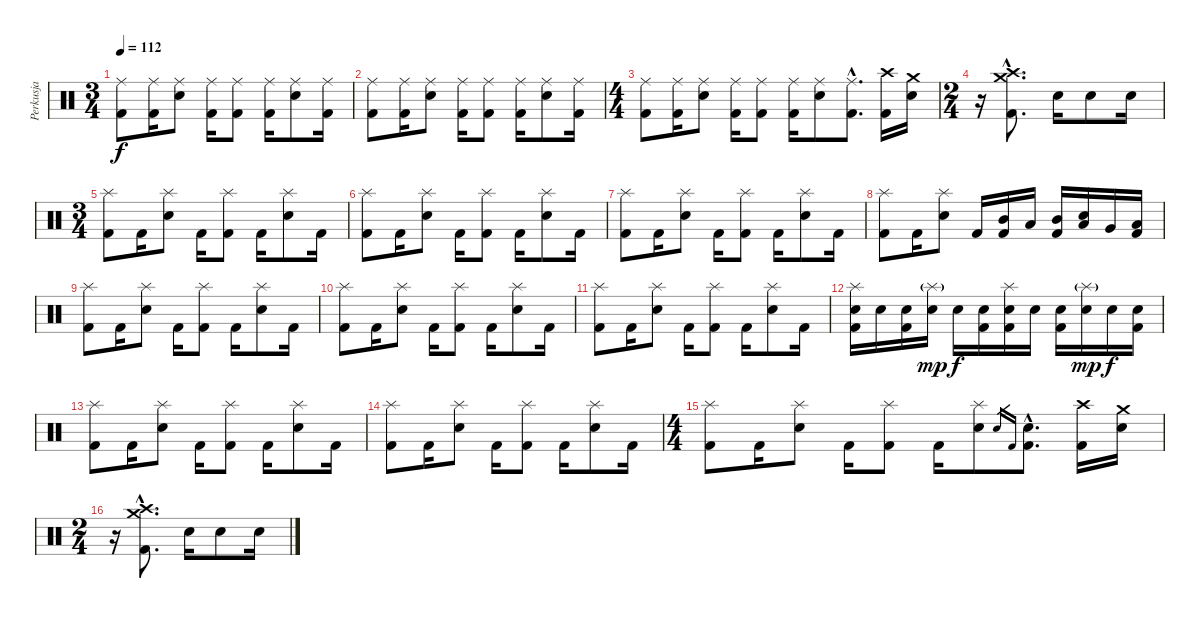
\track ("Perkusja" "Perkusja") {instrument percussion}
\staff {score}
\articulation defaults
\ts (3 4)
\tempo 112
\clef neutral
\ks c
("Ride (middle)" "Kick (hit) 2").8{dy f} ("Ride (middle)" "Kick (hit) 2").16 ("Ride (middle)" "Electric Snare (hit)").8 ("Ride (middle)" "Kick (hit) 2").16 ("Ride (middle)" "Kick (hit) 2").8 ("Ride (middle)" "Kick (hit) 2").16 ("Ride (middle)" "Electric Snare (hit)").8 ("Ride (middle)" "Kick (hit) 2").16 |
("Ride (middle)" "Kick (hit) 2").8 ("Ride (middle)" "Kick (hit) 2").16 ("Ride (middle)" "Electric Snare (hit)").8 ("Ride (middle)" "Kick (hit) 2").16 ("Ride (middle)" "Kick (hit) 2").8 ("Ride (middle)" "Kick (hit) 2").16 ("Ride (middle)" "Electric Snare (hit)").8 ("Ride (middle)" "Kick (hit) 2").16 |
\ts (4 4)
("Ride (middle)" "Kick (hit) 2").8 ("Ride (middle)" "Kick (hit) 2").16 ("Ride (middle)" "Electric Snare (hit)").8 ("Ride (middle)" "Kick (hit) 2").16 ("Ride (middle)" "Kick (hit) 2").8 ("Ride (middle)" "Kick (hit) 2").16 ("Ride (middle)" "Electric Snare (hit)").8 ("Ride (middle)"{hac} "Kick (hit) 2"{hac}).8{d} ("Crash high (hit)" "Kick (hit) 2").16 ("Crash medium (hit)" "Electric Snare (hit)").16 |
\ts (2 4)
r.16 ("Crash high (hit)"{hac} "Crash medium (hit)"{hac} "Kick (hit) 2"{hac}).8{d} "Electric Snare (hit)".16 "Electric Snare (hit)".8 "Electric Snare (hit)".16 |
\ts (3 4)
("Splash (hit)" "Kick (hit) 2").8 "Kick (hit) 2".16 ("Splash (hit)" "Electric Snare (hit)").8 "Kick (hit) 2".16 ("Splash (hit)" "Kick (hit) 2").8 "Kick (hit) 2".16 ("Splash (hit)" "Electric Snare (hit)").8 "Kick (hit) 2".16 |
("Splash (hit)" "Kick (hit) 2").8 "Kick (hit) 2".16 ("Splash (hit)" "Electric Snare (hit)").8 "Kick (hit) 2".16 ("Splash (hit)" "Kick (hit) 2").8 "Kick (hit) 2".16 ("Splash (hit)" "Electric Snare (hit)").8 "Kick (hit) 2".16 |
("Splash (hit)" "Kick (hit) 2").8 "Kick (hit) 2".16 ("Splash (hit)" "Electric Snare (hit)").8 "Kick (hit) 2".16 ("Splash (hit)" "Kick (hit) 2").8 "Kick (hit) 2".16 ("Splash (hit)" "Electric Snare (hit)").8 "Kick (hit) 2".16 |
("Splash (hit)" "Kick (hit) 2").8 "Kick (hit) 2".16 ("Splash (hit)" "Electric Snare (hit)").8 "Kick (hit) 2".16 ("Mid Tom (hit)" "Kick (hit) 2").16 "Low Tom (hit)".16 ("Mid Tom (hit)" "Kick (hit) 2").16 ("Low Tom (hit)" "Electric Snare (hit)").16 "Very Low Tom (hit)".16 ("Low Floor Tom (hit)" "Kick (hit) 2").16 |
("Splash (hit)" "Kick (hit) 2").8 "Kick (hit) 2".16 ("Splash (hit)" "Electric Snare (hit)").8 "Kick (hit) 2".16 ("Splash (hit)" "Kick (hit) 2").8 "Kick (hit) 2".16 ("Splash (hit)" "Electric Snare (hit)").8 "Kick (hit) 2".16 |
("Splash (hit)" "Kick (hit) 2").8 "Kick (hit) 2".16 ("Splash (hit)" "Electric Snare (hit)").8 "Kick (hit) 2".16 ("Splash (hit)" "Kick (hit) 2").8 "Kick (hit) 2".16 ("Splash (hit)" "Electric Snare (hit)").8 "Kick (hit) 2".16 |
("Splash (hit)" "Kick (hit) 2").8 "Kick (hit) 2".16 ("Splash (hit)" "Electric Snare (hit)").8 "Kick (hit) 2".16 ("Splash (hit)" "Kick (hit) 2").8 "Kick (hit) 2".16 ("Splash (hit)" "Electric Snare (hit)").8 "Kick (hit) 2".16 |
("Splash (hit)" "Electric Snare (hit)" "Kick (hit) 2").16 "Electric Snare (hit)".16 ("Electric Snare (hit)" "Kick (hit) 2").16 ("Splash (hit)"{g} "Electric Snare (hit)").16{dy mp} "Electric Snare (hit)".16{dy f} ("Electric Snare (hit)" "Kick (hit) 2").16 ("Splash (hit)" "Electric Snare (hit)" "Kick (hit) 2").16 "Electric Snare (hit)".16 ("Electric Snare (hit)" "Kick (hit) 2").16 ("Splash (hit)"{g} "Electric Snare (hit)").16{dy mp} "Electric Snare (hit)".16{dy f} ("Electric Snare (hit)" "Kick (hit) 2").16 |
("Splash (hit)" "Kick (hit) 2").8 "Kick (hit) 2".16 ("Splash (hit)" "Electric Snare (hit)").8 "Kick (hit) 2".16 ("Splash (hit)" "Kick (hit) 2").8 "Kick (hit) 2".16 ("Splash (hit)" "Electric Snare (hit)").8 "Kick (hit) 2".16 |
("Splash (hit)" "Kick (hit) 2").8 "Kick (hit) 2".16 ("Splash (hit)" "Electric Snare (hit)").8 "Kick (hit) 2".16 ("Splash (hit)" "Kick (hit) 2").8 "Kick (hit) 2".16 ("Splash (hit)" "Electric Snare (hit)").8 "Kick (hit) 2".16 |
\ts (4 4)
("Splash (hit)" "Kick (hit) 2").8 "Kick (hit) 2".16 ("Splash (hit)" "Electric Snare (hit)").8 "Kick (hit) 2".16 ("Splash (hit)" "Kick (hit) 2").8 "Kick (hit) 2".16 ("Splash (hit)" "Electric Snare (hit)").8 "Electric Snare (hit)".16{gr} "Kick (hit) 2".16{gr} ("Electric Snare (hit)"{hac} "Kick (hit) 2"{hac}).8{d} ("Crash high (hit)" "Kick (hit) 2").16 ("Crash medium (hit)" "Electric Snare (hit)").16 |
\ts (2 4)
r.16 ("Crash high (hit)"{hac} "Crash medium (hit)"{hac} "Kick (hit) 2"{hac}).8{d} "Electric Snare (hit)".16 "Electric Snare (hit)".8 "Electric Snare (hit)".16
